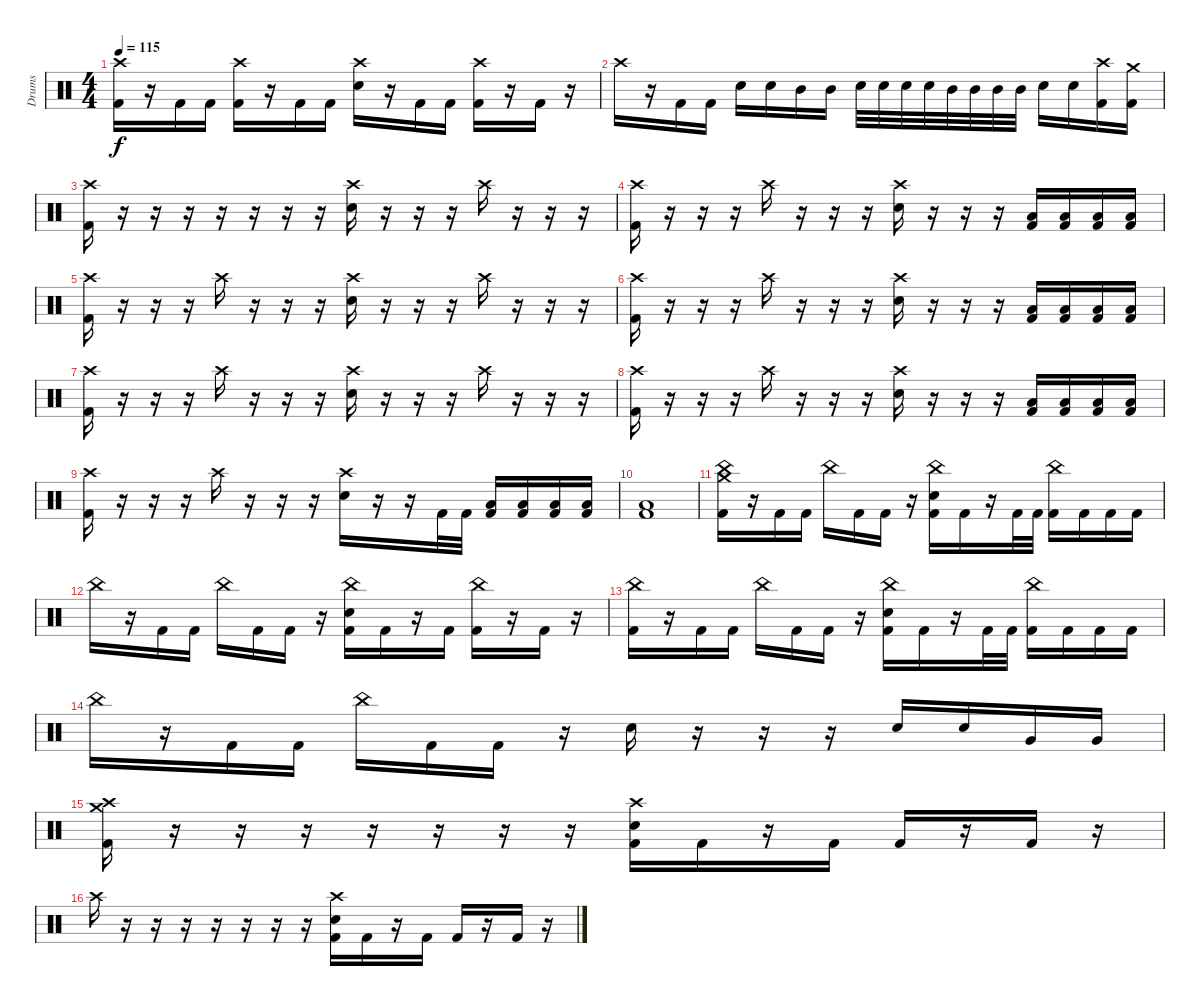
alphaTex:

\track ("Drums" "Drums") {instrument percussion}
\staff {score}
\articulation defaults
\ts (4 4)
\tempo 115
\clef neutral
\ks c
("Crash high (hit)" "Kick (hit) 2").16{dy f} r.16 "Kick (hit) 2".16 "Kick (hit) 2".16 ("Crash high (hit)" "Kick (hit) 2").16 r.16 "Kick (hit) 2".16 "Kick (hit) 2".16 ("Crash high (hit)" "Electric Snare (hit)").16 r.16 "Kick (hit) 2".16 "Kick (hit) 2".16 ("Crash high (hit)" "Kick (hit) 2").16 r.16 "Kick (hit) 2".16 r.16 |
"Crash high (hit)".16 r.16 "Kick (hit) 2".16 "Kick (hit) 2".16 "Electric Snare (hit)".16 "Electric Snare (hit)".16 "Mid Tom (hit)".16 "Mid Tom (hit)".16 "Electric Snare (hit)".32 "Electric Snare (hit)".32 "Electric Snare (hit)".32 "Electric Snare (hit)".32 "Mid Tom (hit)".32 "Mid Tom (hit)".32 "Mid Tom (hit)".32 "Mid Tom (hit)".32 "Electric Snare (hit)".16 "Electric Snare (hit)".16 ("Crash high (hit)" "Kick (hit) 2").16 ("Crash medium (hit)" "Kick (hit) 2").16 |
("Crash high (hit)" "Kick (hit) 2").16 r.16 r.16 r.16 r.16 r.16 r.16 r.16 ("Crash high (hit)" "Electric Snare (hit)").16 r.16 r.16 r.16 "Crash high (hit)".16 r.16 r.16 r.16 |
("Crash high (hit)" "Kick (hit) 2").16 r.16 r.16 r.16 "Crash high (hit)".16 r.16 r.16 r.16 ("Crash high (hit)" "Electric Snare (hit)").16 r.16 r.16 r.16 ("Low Tom (hit)" "Kick (hit) 2").16 ("Low Tom (hit)" "Kick (hit) 2").16 ("Low Tom (hit)" "Kick (hit) 2").16 ("Low Tom (hit)" "Kick (hit) 2").16 |
("Crash high (hit)" "Kick (hit) 2").16 r.16 r.16 r.16 "Crash high (hit)".16 r.16 r.16 r.16 ("Crash high (hit)" "Electric Snare (hit)").16 r.16 r.16 r.16 "Crash high (hit)".16 r.16 r.16 r.16 |
("Crash high (hit)" "Kick (hit) 2").16 r.16 r.16 r.16 "Crash high (hit)".16 r.16 r.16 r.16 ("Crash high (hit)" "Electric Snare (hit)").16 r.16 r.16 r.16 ("Low Tom (hit)" "Kick (hit) 2").16 ("Low Tom (hit)" "Kick (hit) 2").16 ("Low Tom (hit)" "Kick (hit) 2").16 ("Low Tom (hit)" "Kick (hit) 2").16 |
("Crash high (hit)" "Kick (hit) 2").16 r.16 r.16 r.16 "Crash high (hit)".16 r.16 r.16 r.16 ("Crash high (hit)" "Electric Snare (hit)").16 r.16 r.16 r.16 "Crash high (hit)".16 r.16 r.16 r.16 |
("Crash high (hit)" "Kick (hit) 2").16 r.16 r.16 r.16 "Crash high (hit)".16 r.16 r.16 r.16 ("Crash high (hit)" "Electric Snare (hit)").16 r.16 r.16 r.16 ("Low Tom (hit)" "Kick (hit) 2").16 ("Low Tom (hit)" "Kick (hit) 2").16 ("Low Tom (hit)" "Kick (hit) 2").16 ("Low Tom (hit)" "Kick (hit) 2").16 |
("Crash high (hit)" "Kick (hit) 2").16 r.16 r.16 r.16 "Crash high (hit)".16 r.16 r.16 r.16 ("Crash high (hit)" "Electric Snare (hit)").16 r.16 r.16 "Kick (hit) 2".32 "Kick (hit) 2".32 ("Low Tom (hit)" "Kick (hit) 2").16 ("Low Tom (hit)" "Kick (hit) 2").16 ("Low Tom (hit)" "Kick (hit) 2").16 ("Low Tom (hit)" "Kick (hit) 2").16 |
("Low Tom (hit)" "Kick (hit) 2").1 |
("Crash medium (hit)" "China (hit)" "Kick (hit) 2").16 r.16 "Kick (hit) 2".16 "Kick (hit) 2".16 "China (hit)".16 "Kick (hit) 2".16 "Kick (hit) 2".16 r.16 ("China (hit)" "Electric Snare (hit)" "Kick (hit) 2").16 "Kick (hit) 2".16 r.16 "Kick (hit) 2".32 "Kick (hit) 2".32 ("China (hit)" "Kick (hit) 2").16 "Kick (hit) 2".16 "Kick (hit) 2".16 "Kick (hit) 2".16 |
"China (hit)".16 r.16 "Kick (hit) 2".16 "Kick (hit) 2".16 "China (hit)".16 "Kick (hit) 2".16 "Kick (hit) 2".16 r.16 ("China (hit)" "Electric Snare (hit)" "Kick (hit) 2").16 "Kick (hit) 2".16 r.16 "Kick (hit) 2".16 ("China (hit)" "Kick (hit) 2").16 r.16 "Kick (hit) 2".16 r.16 |
("China (hit)" "Kick (hit) 2").16 r.16 "Kick (hit) 2".16 "Kick (hit) 2".16 "China (hit)".16 "Kick (hit) 2".16 "Kick (hit) 2".16 r.16 ("China (hit)" "Electric Snare (hit)" "Kick (hit) 2").16 "Kick (hit) 2".16 r.16 "Kick (hit) 2".32 "Kick (hit) 2".32 ("China (hit)" "Kick (hit) 2").16 "Kick (hit) 2".16 "Kick (hit) 2".16 "Kick (hit) 2".16 |
"China (hit)".16 r.16 "Kick (hit) 2".16 "Kick (hit) 2".16 "China (hit)".16 "Kick (hit) 2".16 "Kick (hit) 2".16 r.16 "Electric Snare (hit)".16 r.16 r.16 r.16 "Electric Snare (hit)".16 "Electric Snare (hit)".16 "Very Low Tom (hit)".16 "Very Low Tom (hit)".16 |
("Crash medium (hit)" "Crash high (hit)" "Kick (hit) 2").16 r.16 r.16 r.16 r.16 r.16 r.16 r.16 ("Crash high (hit)" "Electric Snare (hit)" "Kick (hit) 2").16 "Kick (hit) 2".16 r.16 "Kick (hit) 2".16 "Kick (hit) 2".16 r.16 "Kick (hit) 2".16 r.16 |
"Crash high (hit)".16 r.16 r.16 r.16 r.16 r.16 r.16 r.16 ("Crash high (hit)" "Electric Snare (hit)" "Kick (hit) 2").16 "Kick (hit) 2".16 r.16 "Kick (hit) 2".16 "Kick (hit) 2".16 r.16 "Kick (hit) 2".16 r.16
